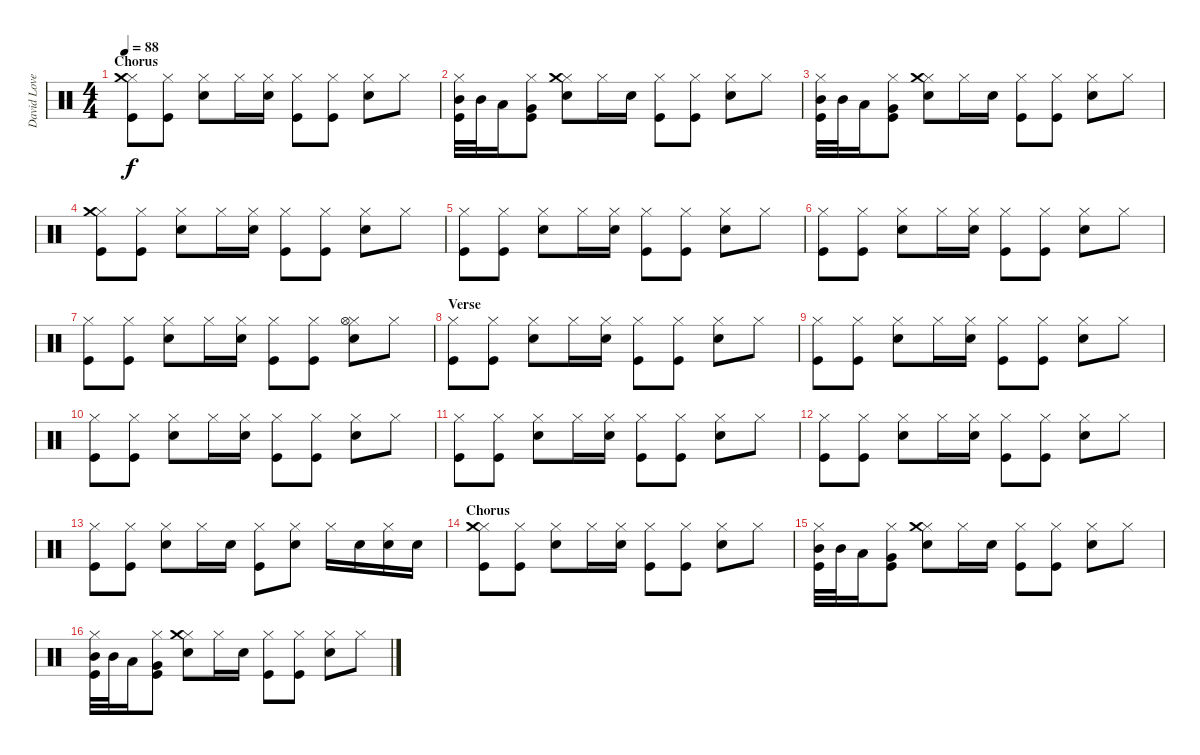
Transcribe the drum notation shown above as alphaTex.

\track ("David Lovering" "David Love") {instrument percussion}
\staff {score}
\articulation defaults
\ts (4 4)
\section ("" "Chorus")
\tempo 88
\clef neutral
\ks c
("Hi-Hat (closed)" "Crash medium (hit)" "Kick (hit)").8{dy f} ("Hi-Hat (closed)" "Kick (hit)").8 ("Hi-Hat (closed)" "Snare (hit) 2").8 "Hi-Hat (closed)".16 ("Hi-Hat (closed)" "Snare (hit) 2").16 ("Hi-Hat (closed)" "Kick (hit)").8 ("Hi-Hat (closed)" "Kick (hit)").8 ("Hi-Hat (closed)" "Snare (hit) 2").8 "Hi-Hat (closed)".8 |
("Hi-Hat (closed)" "Mid Tom (hit)" "Kick (hit)").32 "Mid Tom (hit)".32 "Low Tom (hit)".16 ("Hi-Hat (closed)" "Very Low Tom (hit)" "Kick (hit)").8 ("Hi-Hat (closed)" "Crash medium (hit)" "Snare (hit) 2").8 "Hi-Hat (closed)".16 "Snare (hit) 2".16 ("Hi-Hat (closed)" "Kick (hit)").8 ("Hi-Hat (closed)" "Kick (hit)").8 ("Hi-Hat (closed)" "Snare (hit) 2").8 "Hi-Hat (closed)".8 |
("Hi-Hat (closed)" "Mid Tom (hit)" "Kick (hit)").32 "Mid Tom (hit)".32 "Low Tom (hit)".16 ("Hi-Hat (closed)" "Very Low Tom (hit)" "Kick (hit)").8 ("Hi-Hat (closed)" "Crash medium (hit)" "Snare (hit) 2").8 "Hi-Hat (closed)".16 "Snare (hit) 2".16 ("Hi-Hat (closed)" "Kick (hit)").8 ("Hi-Hat (closed)" "Kick (hit)").8 ("Hi-Hat (closed)" "Snare (hit) 2").8 "Hi-Hat (closed)".8 |
\section ("" "")
("Hi-Hat (closed)" "Crash medium (hit)" "Kick (hit)").8 ("Hi-Hat (closed)" "Kick (hit)").8 ("Hi-Hat (closed)" "Snare (hit) 2").8 "Hi-Hat (closed)".16 ("Hi-Hat (closed)" "Snare (hit) 2").16 ("Hi-Hat (closed)" "Kick (hit)").8 ("Hi-Hat (closed)" "Kick (hit)").8 ("Hi-Hat (closed)" "Snare (hit) 2").8 "Hi-Hat (closed)".8 |
("Hi-Hat (closed)" "Kick (hit)").8 ("Hi-Hat (closed)" "Kick (hit)").8 ("Hi-Hat (closed)" "Snare (hit) 2").8 "Hi-Hat (closed)".16 ("Hi-Hat (closed)" "Snare (hit) 2").16 ("Hi-Hat (closed)" "Kick (hit)").8 ("Hi-Hat (closed)" "Kick (hit)").8 ("Hi-Hat (closed)" "Snare (hit) 2").8 "Hi-Hat (closed)".8 |
("Hi-Hat (closed)" "Kick (hit)").8 ("Hi-Hat (closed)" "Kick (hit)").8 ("Hi-Hat (closed)" "Snare (hit) 2").8 "Hi-Hat (closed)".16 ("Hi-Hat (closed)" "Snare (hit) 2").16 ("Hi-Hat (closed)" "Kick (hit)").8 ("Hi-Hat (closed)" "Kick (hit)").8 ("Hi-Hat (closed)" "Snare (hit) 2").8 "Hi-Hat (closed)".8 |
("Hi-Hat (closed)" "Kick (hit)").8 ("Hi-Hat (closed)" "Kick (hit)").8 ("Hi-Hat (closed)" "Snare (hit) 2").8 "Hi-Hat (closed)".16 ("Hi-Hat (closed)" "Snare (hit) 2").16 ("Hi-Hat (closed)" "Kick (hit)").8 ("Hi-Hat (closed)" "Kick (hit)").8 ("Hi-Hat (closed)" "Hi-Hat (open)" "Snare (hit) 2").8 "Hi-Hat (closed)".8 |
\section ("" "Verse")
("Hi-Hat (closed)" "Kick (hit)").8 ("Hi-Hat (closed)" "Kick (hit)").8 ("Hi-Hat (closed)" "Snare (hit) 2").8 "Hi-Hat (closed)".16 ("Hi-Hat (closed)" "Snare (hit) 2").16 ("Hi-Hat (closed)" "Kick (hit)").8 ("Hi-Hat (closed)" "Kick (hit)").8 ("Hi-Hat (closed)" "Snare (hit) 2").8 "Hi-Hat (closed)".8 |
("Hi-Hat (closed)" "Kick (hit)").8 ("Hi-Hat (closed)" "Kick (hit)").8 ("Hi-Hat (closed)" "Snare (hit) 2").8 "Hi-Hat (closed)".16 ("Hi-Hat (closed)" "Snare (hit) 2").16 ("Hi-Hat (closed)" "Kick (hit)").8 ("Hi-Hat (closed)" "Kick (hit)").8 ("Hi-Hat (closed)" "Snare (hit) 2").8 "Hi-Hat (closed)".8 |
("Hi-Hat (closed)" "Kick (hit)").8 ("Hi-Hat (closed)" "Kick (hit)").8 ("Hi-Hat (closed)" "Snare (hit) 2").8 "Hi-Hat (closed)".16 ("Hi-Hat (closed)" "Snare (hit) 2").16 ("Hi-Hat (closed)" "Kick (hit)").8 ("Hi-Hat (closed)" "Kick (hit)").8 ("Hi-Hat (closed)" "Snare (hit) 2").8 "Hi-Hat (closed)".8 |
("Hi-Hat (closed)" "Kick (hit)").8 ("Hi-Hat (closed)" "Kick (hit)").8 ("Hi-Hat (closed)" "Snare (hit) 2").8 "Hi-Hat (closed)".16 ("Hi-Hat (closed)" "Snare (hit) 2").16 ("Hi-Hat (closed)" "Kick (hit)").8 ("Hi-Hat (closed)" "Kick (hit)").8 ("Hi-Hat (closed)" "Snare (hit) 2").8 "Hi-Hat (closed)".8 |
("Hi-Hat (closed)" "Kick (hit)").8 ("Hi-Hat (closed)" "Kick (hit)").8 ("Hi-Hat (closed)" "Snare (hit) 2").8 "Hi-Hat (closed)".16 ("Hi-Hat (closed)" "Snare (hit) 2").16 ("Hi-Hat (closed)" "Kick (hit)").8 ("Hi-Hat (closed)" "Kick (hit)").8 ("Hi-Hat (closed)" "Snare (hit) 2").8 "Hi-Hat (closed)".8 |
("Hi-Hat (closed)" "Kick (hit)").8 ("Hi-Hat (closed)" "Kick (hit)").8 ("Hi-Hat (closed)" "Snare (hit) 2").8 "Hi-Hat (closed)".16 "Snare (hit) 2".16 ("Hi-Hat (closed)" "Kick (hit)").8 ("Hi-Hat (closed)" "Snare (hit) 2").8 "Hi-Hat (closed)".16 "Snare (hit) 2".16 ("Hi-Hat (closed)" "Snare (hit) 2").16 "Snare (hit) 2".16 |
\section ("" "Chorus")
("Hi-Hat (closed)" "Crash medium (hit)" "Kick (hit)").8 ("Hi-Hat (closed)" "Kick (hit)").8 ("Hi-Hat (closed)" "Snare (hit) 2").8 "Hi-Hat (closed)".16 ("Hi-Hat (closed)" "Snare (hit) 2").16 ("Hi-Hat (closed)" "Kick (hit)").8 ("Hi-Hat (closed)" "Kick (hit)").8 ("Hi-Hat (closed)" "Snare (hit) 2").8 "Hi-Hat (closed)".8 |
("Hi-Hat (closed)" "Mid Tom (hit)" "Kick (hit)").32 "Mid Tom (hit)".32 "Low Tom (hit)".16 ("Hi-Hat (closed)" "Very Low Tom (hit)" "Kick (hit)").8 ("Hi-Hat (closed)" "Crash medium (hit)" "Snare (hit) 2").8 "Hi-Hat (closed)".16 "Snare (hit) 2".16 ("Hi-Hat (closed)" "Kick (hit)").8 ("Hi-Hat (closed)" "Kick (hit)").8 ("Hi-Hat (closed)" "Snare (hit) 2").8 "Hi-Hat (closed)".8 |
("Hi-Hat (closed)" "Mid Tom (hit)" "Kick (hit)").32 "Mid Tom (hit)".32 "Low Tom (hit)".16 ("Hi-Hat (closed)" "Very Low Tom (hit)" "Kick (hit)").8 ("Hi-Hat (closed)" "Crash medium (hit)" "Snare (hit) 2").8 "Hi-Hat (closed)".16 "Snare (hit) 2".16 ("Hi-Hat (closed)" "Kick (hit)").8 ("Hi-Hat (closed)" "Kick (hit)").8 ("Hi-Hat (closed)" "Snare (hit) 2").8 "Hi-Hat (closed)".8
